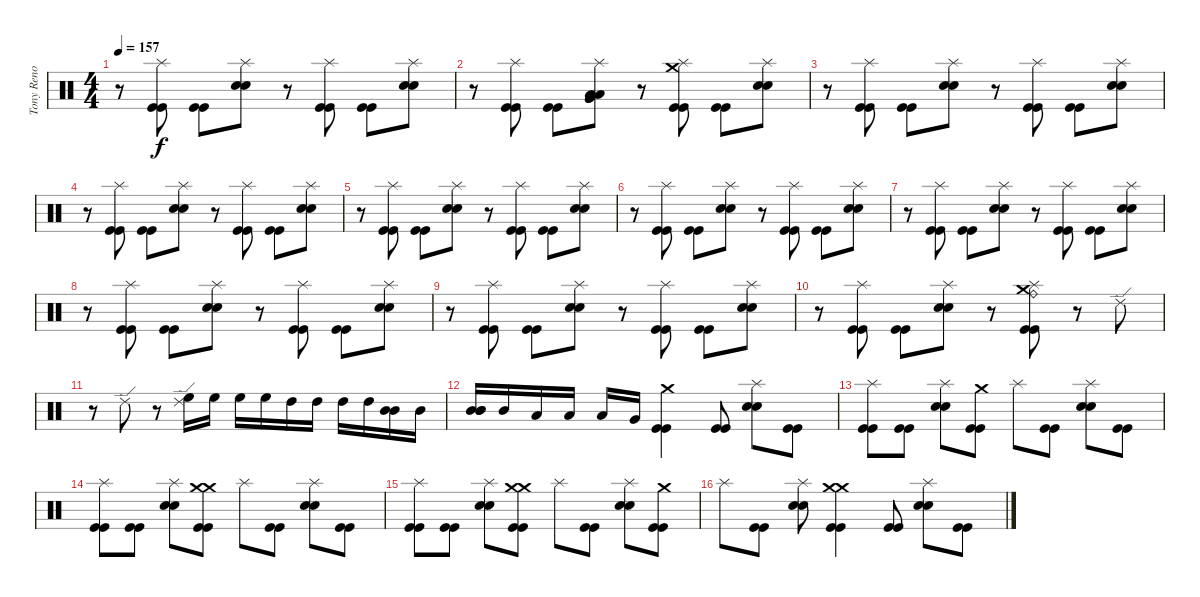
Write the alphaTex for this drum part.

\track ("Tony Reno ( 1984 < Ian Haughland )" "Tony Reno ") {instrument percussion}
\staff {score}
\articulation defaults
\ts (4 4)
\tempo 157
\clef neutral
\ks c
r.8{dy f} ("Kick (hit)" "Kick (hit)" "Splash (hit)").8 ("Kick (hit)" "Kick (hit)").8 ("Splash (hit)" "Electric Snare (hit)" "Electric Snare (hit)").8 r.8 ("Kick (hit)" "Kick (hit)" "Splash (hit)").8 ("Kick (hit)" "Kick (hit)").8 ("Electric Snare (hit)" "Electric Snare (hit)" "Splash (hit)").8 |
r.8 ("Kick (hit)" "Kick (hit)" "Splash (hit)").8 ("Kick (hit)" "Kick (hit)").8 ("Low Tom (hit)" "Low Tom (hit)" "Very Low Tom (hit)" "Very Low Tom (hit)" "Splash (hit)").8 r.8 ("Crash medium (hit)" "Kick (hit)" "Kick (hit)" "Splash (hit)").8 ("Kick (hit)" "Kick (hit)").8 ("Electric Snare (hit)" "Electric Snare (hit)" "Splash (hit)").8 |
r.8 ("Kick (hit)" "Kick (hit)" "Splash (hit)").8 ("Kick (hit)" "Kick (hit)").8 ("Splash (hit)" "Electric Snare (hit)" "Electric Snare (hit)").8 r.8 ("Kick (hit)" "Kick (hit)" "Splash (hit)").8 ("Kick (hit)" "Kick (hit)").8 ("Electric Snare (hit)" "Electric Snare (hit)" "Splash (hit)").8 |
r.8 ("Kick (hit)" "Kick (hit)" "Splash (hit)").8 ("Kick (hit)" "Kick (hit)").8 ("Splash (hit)" "Electric Snare (hit)" "Electric Snare (hit)").8 r.8 ("Kick (hit)" "Kick (hit)" "Splash (hit)").8 ("Kick (hit)" "Kick (hit)").8 ("Electric Snare (hit)" "Electric Snare (hit)" "Splash (hit)").8 |
r.8 ("Kick (hit)" "Kick (hit)" "Splash (hit)").8 ("Kick (hit)" "Kick (hit)").8 ("Splash (hit)" "Electric Snare (hit)" "Electric Snare (hit)").8 r.8 ("Kick (hit)" "Kick (hit)" "Splash (hit)").8 ("Kick (hit)" "Kick (hit)").8 ("Electric Snare (hit)" "Electric Snare (hit)" "Splash (hit)").8 |
r.8 ("Kick (hit)" "Kick (hit)" "Splash (hit)").8 ("Kick (hit)" "Kick (hit)").8 ("Splash (hit)" "Electric Snare (hit)" "Electric Snare (hit)").8 r.8 ("Kick (hit)" "Kick (hit)" "Splash (hit)").8 ("Kick (hit)" "Kick (hit)").8 ("Electric Snare (hit)" "Electric Snare (hit)" "Splash (hit)").8 |
r.8 ("Kick (hit)" "Kick (hit)" "Splash (hit)").8 ("Kick (hit)" "Kick (hit)").8 ("Splash (hit)" "Electric Snare (hit)" "Electric Snare (hit)").8 r.8 ("Kick (hit)" "Kick (hit)" "Splash (hit)").8 ("Kick (hit)" "Kick (hit)").8 ("Electric Snare (hit)" "Electric Snare (hit)" "Splash (hit)").8 |
r.8 ("Kick (hit)" "Kick (hit)" "Splash (hit)").8 ("Kick (hit)" "Kick (hit)").8 ("Splash (hit)" "Electric Snare (hit)" "Electric Snare (hit)").8 r.8 ("Kick (hit)" "Kick (hit)" "Splash (hit)").8 ("Kick (hit)" "Kick (hit)").8 ("Electric Snare (hit)" "Electric Snare (hit)" "Splash (hit)").8 |
r.8 ("Kick (hit)" "Kick (hit)" "Splash (hit)").8 ("Kick (hit)" "Kick (hit)").8 ("Splash (hit)" "Electric Snare (hit)" "Electric Snare (hit)").8 r.8 ("Kick (hit)" "Kick (hit)" "Splash (hit)").8 ("Kick (hit)" "Kick (hit)").8 ("Electric Snare (hit)" "Electric Snare (hit)" "Splash (hit)").8 |
r.8 ("Kick (hit)" "Kick (hit)" "Splash (hit)").8 ("Kick (hit)" "Kick (hit)").8 ("Splash (hit)" "Electric Snare (hit)" "Electric Snare (hit)").8 r.8 ("Ride (bell)" "Crash medium (hit)" "Kick (hit)" "Kick (hit)" "Splash (hit)").8 r.8 "Ride (edge) 2".8 |
r.8 "Ride (edge) 2".8 r.8 ("High Floor Tom (hit)" "Ride (edge) 2").16 "High Floor Tom (hit)".16 "High Floor Tom (hit)".16 "High Floor Tom (hit)".16 "High Tom (hit)".16 "High Tom (hit)".16 "High Tom (hit)".16 "High Tom (hit)".16 ("Mid Tom (hit)" "Mid Tom (hit)").16 "Mid Tom (hit)".16 |
("Mid Tom (hit)" "Mid Tom (hit)" "Mid Tom (hit)").16 "Mid Tom (hit)".16 "Low Tom (hit)".16 "Low Tom (hit)".16 "Low Tom (hit)".16 "Very Low Tom (hit)".16 ("Kick (hit)" "Kick (hit)" "Crash medium (hit)").4 ("Kick (hit)" "Kick (hit)").8 ("Splash (hit)" "Electric Snare (hit)" "Electric Snare (hit)").8 ("Kick (hit)" "Kick (hit)").8 |
("Splash (hit)" "Kick (hit)" "Kick (hit)").8 ("Kick (hit)" "Kick (hit)").8 ("Electric Snare (hit)" "Electric Snare (hit)" "Splash (hit)").8 ("Kick (hit)" "Kick (hit)" "Crash medium (hit)").8 "Splash (hit)".8 ("Kick (hit)" "Kick (hit)").8 ("Electric Snare (hit)" "Electric Snare (hit)" "Splash (hit)").8 ("Kick (hit)" "Kick (hit)").8 |
("Kick (hit)" "Kick (hit)" "Splash (hit)").8 ("Kick (hit)" "Kick (hit)").8 ("Electric Snare (hit)" "Electric Snare (hit)" "Splash (hit)").8 ("Crash medium (hit)" "Crash medium (hit)" "Kick (hit)" "Kick (hit)").8 "Splash (hit)".8 ("Kick (hit)" "Kick (hit)").8 ("Splash (hit)" "Electric Snare (hit)" "Electric Snare (hit)").8 ("Kick (hit)" "Kick (hit)").8 |
("Splash (hit)" "Kick (hit)" "Kick (hit)").8 ("Kick (hit)" "Kick (hit)").8 ("Electric Snare (hit)" "Electric Snare (hit)" "Splash (hit)").8 ("Crash medium (hit)" "Crash medium (hit)" "Kick (hit)" "Kick (hit)").8 "Splash (hit)".8 ("Kick (hit)" "Kick (hit)").8 ("Splash (hit)" "Electric Snare (hit)" "Electric Snare (hit)").8 ("Kick (hit)" "Kick (hit)" "Crash medium (hit)").8 |
"Splash (hit)".8 ("Kick (hit)" "Kick (hit)").8 ("Electric Snare (hit)" "Electric Snare (hit)" "Splash (hit)").8 ("Crash medium (hit)" "Crash medium (hit)" "Kick (hit)" "Kick (hit)").4 ("Kick (hit)" "Kick (hit)").8 ("Splash (hit)" "Electric Snare (hit)" "Electric Snare (hit)").8 ("Kick (hit)" "Kick (hit)").8
